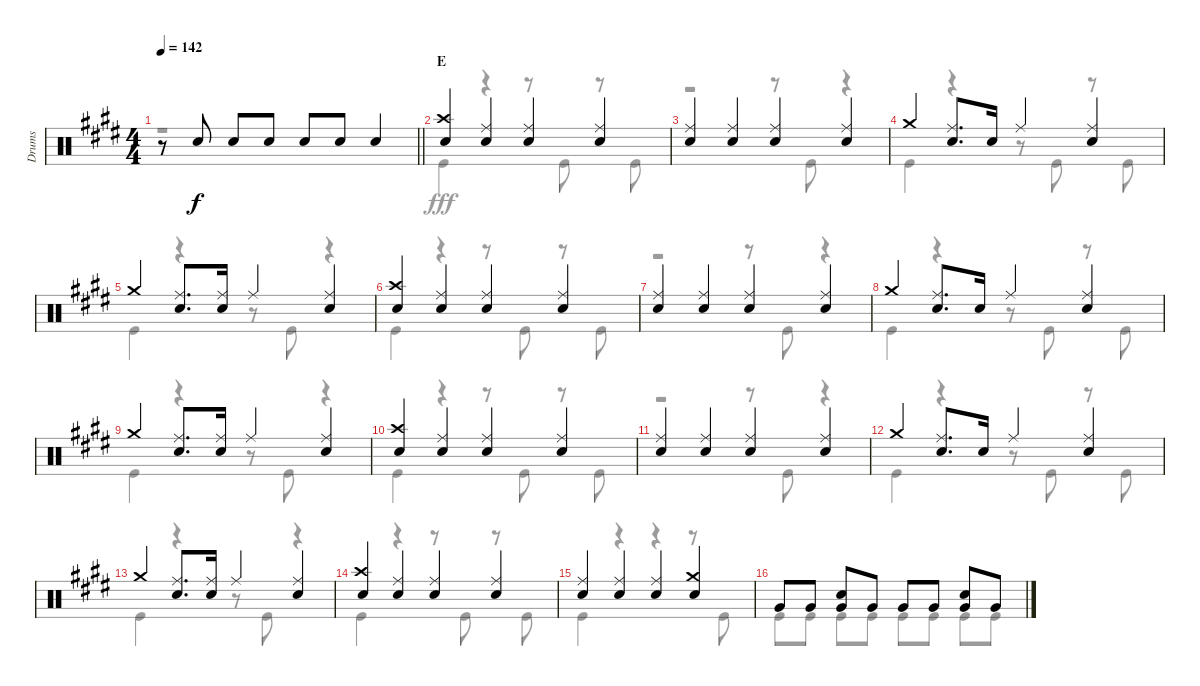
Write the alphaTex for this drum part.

\track ("Drums" "Drums") {instrument percussion}
\staff {score}
\articulation defaults
\voice
\ts (4 4)
\tempo 142
\clef neutral
\barLineRight lightlight
\ks e
r.8{dy f} "Snare (hit) 2".8 "Snare (hit) 2".8 "Snare (hit) 2".8 "Snare (hit) 2".8 "Snare (hit) 2".8 "Snare (hit) 2".4 |
\section ("" "E")
("Crash high (hit)" "Snare (hit) 2").4 ("Ride (middle)" "Snare (hit) 2").4 ("Ride (middle)" "Snare (hit) 2").4 ("Ride (middle)" "Snare (hit) 2").4 |
("Ride (middle)" "Snare (hit) 2").4 ("Ride (middle)" "Snare (hit) 2").4 ("Ride (middle)" "Snare (hit) 2").4 ("Ride (middle)" "Snare (hit) 2").4 |
"Crash medium (hit)".4 ("Ride (middle)" "Snare (hit) 2").8{d} "Snare (hit) 2".16 "Ride (middle)".4 ("Ride (middle)" "Snare (hit) 2").4 |
"Crash medium (hit)".4 ("Ride (middle)" "Snare (hit) 2").8{d} ("Ride (middle)" "Snare (hit) 2").16 "Ride (middle)".4 ("Ride (middle)" "Snare (hit) 2").4 |
("Crash high (hit)" "Snare (hit) 2").4 ("Ride (middle)" "Snare (hit) 2").4 ("Ride (middle)" "Snare (hit) 2").4 ("Ride (middle)" "Snare (hit) 2").4 |
("Ride (middle)" "Snare (hit) 2").4 ("Ride (middle)" "Snare (hit) 2").4 ("Ride (middle)" "Snare (hit) 2").4 ("Ride (middle)" "Snare (hit) 2").4 |
"Crash medium (hit)".4 ("Ride (middle)" "Snare (hit) 2").8{d} "Snare (hit) 2".16 "Ride (middle)".4 ("Ride (middle)" "Snare (hit) 2").4 |
"Crash medium (hit)".4 ("Ride (middle)" "Snare (hit) 2").8{d} ("Ride (middle)" "Snare (hit) 2").16 "Ride (middle)".4 ("Ride (middle)" "Snare (hit) 2").4 |
("Crash high (hit)" "Snare (hit) 2").4 ("Ride (middle)" "Snare (hit) 2").4 ("Ride (middle)" "Snare (hit) 2").4 ("Ride (middle)" "Snare (hit) 2").4 |
("Ride (middle)" "Snare (hit) 2").4 ("Ride (middle)" "Snare (hit) 2").4 ("Ride (middle)" "Snare (hit) 2").4 ("Ride (middle)" "Snare (hit) 2").4 |
"Crash medium (hit)".4 ("Ride (middle)" "Snare (hit) 2").8{d} "Snare (hit) 2".16 "Ride (middle)".4 ("Ride (middle)" "Snare (hit) 2").4 |
"Crash medium (hit)".4 ("Ride (middle)" "Snare (hit) 2").8{d} ("Ride (middle)" "Snare (hit) 2").16 "Ride (middle)".4 ("Ride (middle)" "Snare (hit) 2").4 |
("Crash high (hit)" "Snare (hit) 2").4 ("Ride (middle)" "Snare (hit) 2").4 ("Ride (middle)" "Snare (hit) 2").4 ("Ride (middle)" "Snare (hit) 2").4 |
("Ride (middle)" "Snare (hit) 2").4 ("Ride (middle)" "Snare (hit) 2").4 ("Ride (middle)" "Snare (hit) 2").4 ("Crash medium (hit)" "Snare (hit) 2").4 |
"Very Low Tom (hit)".8 "Very Low Tom (hit)".8 ("Snare (hit) 2" "Very Low Tom (hit)").8 "Very Low Tom (hit)".8 "Very Low Tom (hit)".8 "Very Low Tom (hit)".8 ("Snare (hit) 2" "Very Low Tom (hit)").8 "Very Low Tom (hit)".8
\voice
\clef neutral
\ottava regular
\simile none
\barLineRight lightlight
\ks e
r.1{dy fff} |
"Kick (hit)".4 r.4 r.8 "Kick (hit)".8 r.8 "Kick (hit)".8 |
r.2 r.8 "Kick (hit)".8 r.4 |
"Kick (hit)".4 r.4 r.8 "Kick (hit)".8 r.8 "Kick (hit)".8 |
"Kick (hit)".4 r.4 r.8 "Kick (hit)".8 r.4 |
"Kick (hit)".4 r.4 r.8 "Kick (hit)".8 r.8 "Kick (hit)".8 |
r.2 r.8 "Kick (hit)".8 r.4 |
"Kick (hit)".4 r.4 r.8 "Kick (hit)".8 r.8 "Kick (hit)".8 |
"Kick (hit)".4 r.4 r.8 "Kick (hit)".8 r.4 |
"Kick (hit)".4 r.4 r.8 "Kick (hit)".8 r.8 "Kick (hit)".8 |
r.2 r.8 "Kick (hit)".8 r.4 |
"Kick (hit)".4 r.4 r.8 "Kick (hit)".8 r.8 "Kick (hit)".8 |
"Kick (hit)".4 r.4 r.8 "Kick (hit)".8 r.4 |
"Kick (hit)".4 r.4 r.8 "Kick (hit)".8 r.8 "Kick (hit)".8 |
"Kick (hit)".4 r.4 r.4 r.8 "Kick (hit)".8 |
"Kick (hit)".8 "Kick (hit)".8 "Kick (hit)".8 "Kick (hit)".8 "Kick (hit)".8 "Kick (hit)".8 "Kick (hit)".8 "Kick (hit)".8
